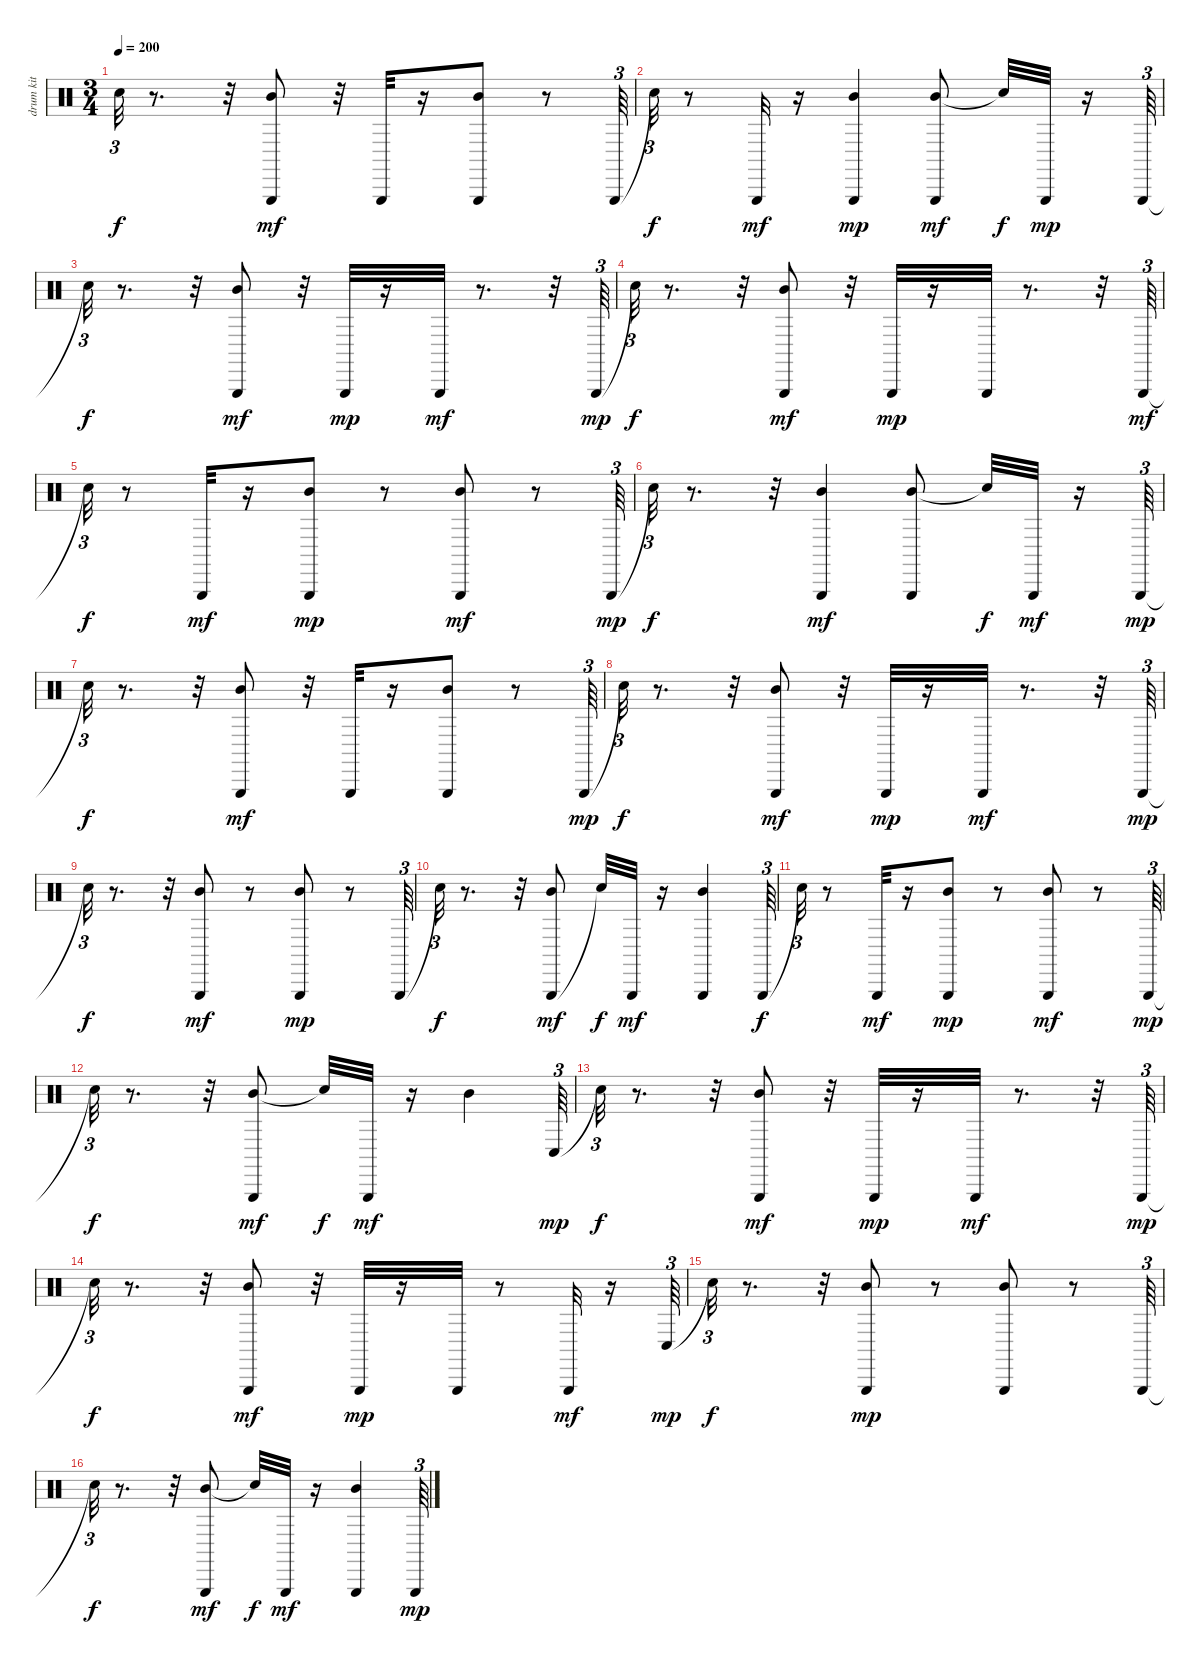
\track (" drum kit (hi-hat/cymbals)" " drum kit ") {instrument percussion}
\staff {score}
\articulation defaults
\ts (3 4)
\tempo 200
\clef neutral
\ks c "Snare (hit)"{t}.32{tu (3 2) dy f}
r.8{d} r.32 ("Mid Tom (hit)" "Triangle (hit)").8{dy mf} r.32 "Triangle (hit)".32 r.16 ("Mid Tom (hit)" "Triangle (hit)").8 r.8 "Triangle (hit)".64{tu (3 2)} |
"Snare (hit)"{t}.32{tu (3 2) dy f} r.8 "Triangle (hit)".32{dy mf} r.16 ("Mid Tom (hit)" "Triangle (hit)").4{dy mp} ("Mid Tom (hit)" "Triangle (hit)").8{dy mf} "Snare (hit)"{t}.32{dy f} "Triangle (hit)".32{dy mp} r.16 "Triangle (hit)".64{tu (3 2)} |
"Snare (hit)"{t}.32{tu (3 2) dy f} r.8{d} r.32 ("Mid Tom (hit)" "Triangle (hit)").8{dy mf} r.32 "Triangle (hit)".32{dy mp} r.16 "Triangle (hit)".32{dy mf} r.8{d} r.32 "Triangle (hit)".64{tu (3 2) dy mp} |
"Snare (hit)"{t}.32{tu (3 2) dy f} r.8{d} r.32 ("Mid Tom (hit)" "Triangle (hit)").8{dy mf} r.32 "Triangle (hit)".32{dy mp} r.16 "Triangle (hit)".32 r.8{d} r.32 "Triangle (hit)".64{tu (3 2) dy mf} |
"Snare (hit)"{t}.32{tu (3 2) dy f} r.8 "Triangle (hit)".32{dy mf} r.16 ("Mid Tom (hit)" "Triangle (hit)").8{dy mp} r.8 ("Triangle (hit)" "Mid Tom (hit)").8{dy mf} r.8 "Triangle (hit)".64{tu (3 2) dy mp} |
"Snare (hit)"{t}.32{tu (3 2) dy f} r.8{d} r.32 ("Mid Tom (hit)" "Triangle (hit)").4{dy mf} ("Mid Tom (hit)" "Triangle (hit)").8 "Snare (hit)"{t}.32{dy f} "Triangle (hit)".32{dy mf} r.16 "Triangle (hit)".64{tu (3 2) dy mp} |
"Snare (hit)"{t}.32{tu (3 2) dy f} r.8{d} r.32 ("Mid Tom (hit)" "Triangle (hit)").8{dy mf} r.32 "Triangle (hit)".32 r.16 ("Mid Tom (hit)" "Triangle (hit)").8 r.8 "Triangle (hit)".64{tu (3 2) dy mp} |
"Snare (hit)"{t}.32{tu (3 2) dy f} r.8{d} r.32 ("Mid Tom (hit)" "Triangle (hit)").8{dy mf} r.32 "Triangle (hit)".32{dy mp} r.16 "Triangle (hit)".32{dy mf} r.8{d} r.32 "Triangle (hit)".64{tu (3 2) dy mp} |
"Snare (hit)"{t}.32{tu (3 2) dy f} r.8{d} r.32 ("Mid Tom (hit)" "Triangle (hit)").8{dy mf} r.8 ("Mid Tom (hit)" "Triangle (hit)").8{dy mp} r.8 "Triangle (hit)".64{tu (3 2)} |
"Snare (hit)"{t}.32{tu (3 2) dy f} r.8{d} r.32 ("Triangle (hit)" "Mid Tom (hit)").8{dy mf} "Snare (hit)"{t}.32{dy f} "Triangle (hit)".32{dy mf} r.16 ("Triangle (hit)" "Mid Tom (hit)").4 "Triangle (hit)".64{tu (3 2) dy f} |
"Snare (hit)"{t}.32{tu (3 2)} r.8 "Triangle (hit)".32{dy mf} r.16 ("Mid Tom (hit)" "Triangle (hit)").8{dy mp} r.8 ("Mid Tom (hit)" "Triangle (hit)").8{dy mf} r.8 "Triangle (hit)".64{tu (3 2) dy mp} |
"Snare (hit)"{t}.32{tu (3 2) dy f} r.8{d} r.32 ("Mid Tom (hit)" "Triangle (hit)").8{dy mf} "Snare (hit)"{t}.32{dy f} "Triangle (hit)".32{dy mf} r.16 "Mid Tom (hit)".4 "Conga low (hit)".64{tu (3 2) dy mp} |
"Snare (hit)"{t}.32{tu (3 2) dy f} r.8{d} r.32 ("Mid Tom (hit)" "Triangle (hit)").8{dy mf} r.32 "Triangle (hit)".32{dy mp} r.16 "Triangle (hit)".32{dy mf} r.8{d} r.32 "Triangle (hit)".64{tu (3 2) dy mp} |
"Snare (hit)"{t}.32{tu (3 2) dy f} r.8{d} r.32 ("Mid Tom (hit)" "Triangle (hit)").8{dy mf} r.32 "Triangle (hit)".32{dy mp} r.16 "Triangle (hit)".32 r.8 "Triangle (hit)".32{dy mf} r.16 "Conga low (hit)".64{tu (3 2) dy mp} |
"Snare (hit)"{t}.32{tu (3 2) dy f} r.8{d} r.32 ("Mid Tom (hit)" "Triangle (hit)").8{dy mp} r.8 ("Mid Tom (hit)" "Triangle (hit)").8 r.8 "Triangle (hit)".64{tu (3 2)} |
"Snare (hit)"{t}.32{tu (3 2) dy f} r.8{d} r.32 ("Mid Tom (hit)" "Triangle (hit)").8{dy mf} "Snare (hit)"{t}.32{dy f} "Triangle (hit)".32{dy mf} r.16 ("Mid Tom (hit)" "Triangle (hit)").4 "Triangle (hit)".64{tu (3 2) dy mp}
